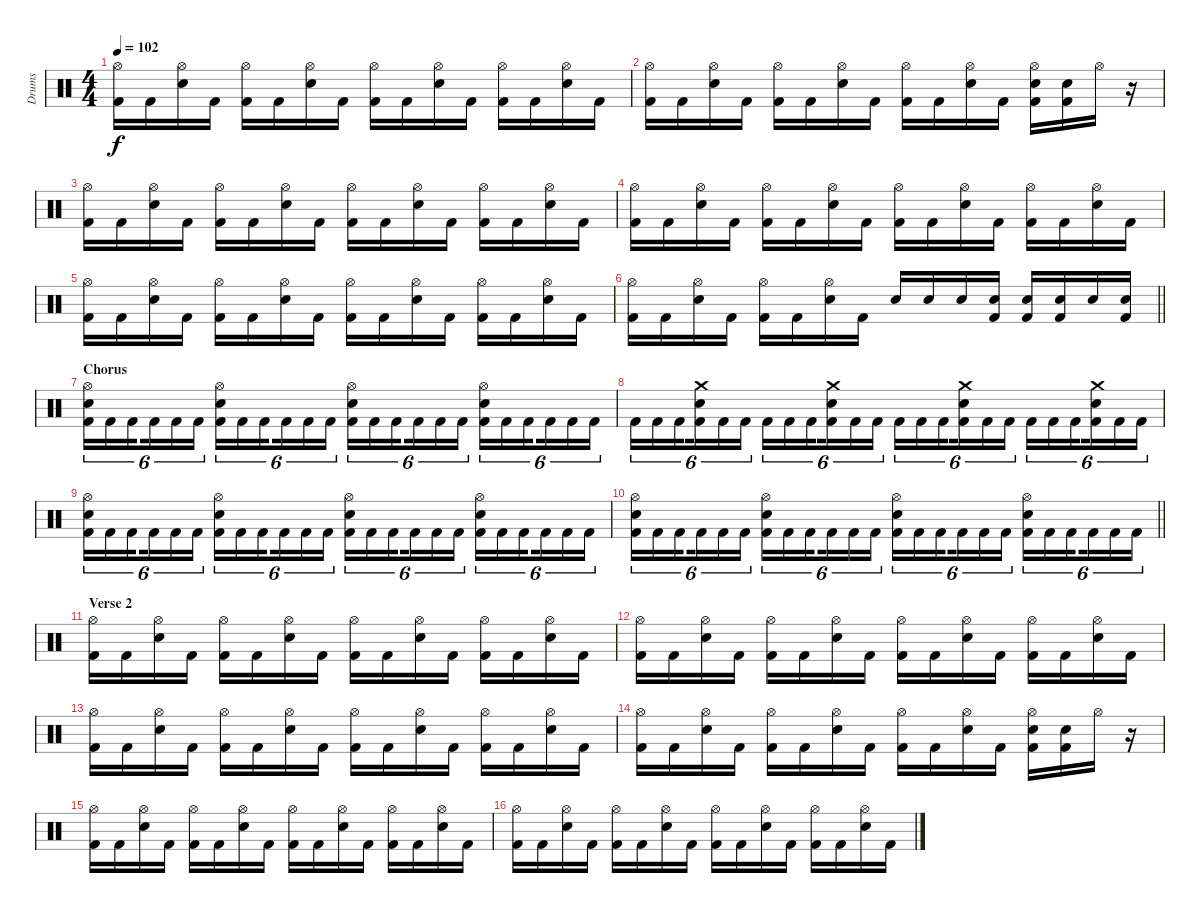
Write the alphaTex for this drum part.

\track ("Drums" "Drums") {instrument percussion}
\staff {score}
\articulation defaults
\ts (4 4)
\tempo 102
\clef neutral
\ks c
("Hi-Hat (open)" "Kick (hit) 2").16{dy f} "Kick (hit) 2".16 ("Hi-Hat (open)" "Snare (hit) 2").16 "Kick (hit) 2".16 ("Hi-Hat (open)" "Kick (hit) 2").16 "Kick (hit) 2".16 ("Hi-Hat (open)" "Snare (hit) 2").16 "Kick (hit) 2".16 ("Hi-Hat (open)" "Kick (hit) 2").16 "Kick (hit) 2".16 ("Hi-Hat (open)" "Snare (hit) 2").16 "Kick (hit) 2".16 ("Hi-Hat (open)" "Kick (hit) 2").16 "Kick (hit) 2".16 ("Hi-Hat (open)" "Snare (hit) 2").16 "Kick (hit) 2".16 |
("Hi-Hat (open)" "Kick (hit) 2").16 "Kick (hit) 2".16 ("Hi-Hat (open)" "Snare (hit) 2").16 "Kick (hit) 2".16 ("Hi-Hat (open)" "Kick (hit) 2").16 "Kick (hit) 2".16 ("Hi-Hat (open)" "Snare (hit) 2").16 "Kick (hit) 2".16 ("Hi-Hat (open)" "Kick (hit) 2").16 "Kick (hit) 2".16 ("Hi-Hat (open)" "Snare (hit) 2").16 "Kick (hit) 2".16 ("Hi-Hat (open)" "Snare (hit) 2" "Kick (hit) 2").16 ("Snare (hit) 2" "Kick (hit) 2").16 "Hi-Hat (open)".16 r.16 |
("Hi-Hat (open)" "Kick (hit) 2").16 "Kick (hit) 2".16 ("Hi-Hat (open)" "Snare (hit) 2").16 "Kick (hit) 2".16 ("Hi-Hat (open)" "Kick (hit) 2").16 "Kick (hit) 2".16 ("Hi-Hat (open)" "Snare (hit) 2").16 "Kick (hit) 2".16 ("Hi-Hat (open)" "Kick (hit) 2").16 "Kick (hit) 2".16 ("Hi-Hat (open)" "Snare (hit) 2").16 "Kick (hit) 2".16 ("Hi-Hat (open)" "Kick (hit) 2").16 "Kick (hit) 2".16 ("Hi-Hat (open)" "Snare (hit) 2").16 "Kick (hit) 2".16 |
("Hi-Hat (open)" "Kick (hit) 2").16 "Kick (hit) 2".16 ("Hi-Hat (open)" "Snare (hit) 2").16 "Kick (hit) 2".16 ("Hi-Hat (open)" "Kick (hit) 2").16 "Kick (hit) 2".16 ("Hi-Hat (open)" "Snare (hit) 2").16 "Kick (hit) 2".16 ("Hi-Hat (open)" "Kick (hit) 2").16 "Kick (hit) 2".16 ("Hi-Hat (open)" "Snare (hit) 2").16 "Kick (hit) 2".16 ("Hi-Hat (open)" "Kick (hit) 2").16 "Kick (hit) 2".16 ("Hi-Hat (open)" "Snare (hit) 2").16 "Kick (hit) 2".16 |
("Hi-Hat (open)" "Kick (hit) 2").16 "Kick (hit) 2".16 ("Hi-Hat (open)" "Snare (hit) 2").16 "Kick (hit) 2".16 ("Hi-Hat (open)" "Kick (hit) 2").16 "Kick (hit) 2".16 ("Hi-Hat (open)" "Snare (hit) 2").16 "Kick (hit) 2".16 ("Hi-Hat (open)" "Kick (hit) 2").16 "Kick (hit) 2".16 ("Hi-Hat (open)" "Snare (hit) 2").16 "Kick (hit) 2".16 ("Hi-Hat (open)" "Kick (hit) 2").16 "Kick (hit) 2".16 ("Hi-Hat (open)" "Snare (hit) 2").16 "Kick (hit) 2".16 |
\barLineRight lightlight
("Hi-Hat (open)" "Kick (hit) 2").16 "Kick (hit) 2".16 ("Hi-Hat (open)" "Snare (hit) 2").16 "Kick (hit) 2".16 ("Hi-Hat (open)" "Kick (hit) 2").16 "Kick (hit) 2".16 ("Hi-Hat (open)" "Snare (hit) 2").16 "Kick (hit) 2".16 "Snare (hit) 2".16 "Snare (hit) 2".16 "Snare (hit) 2".16 ("Snare (hit) 2" "Kick (hit) 2").16 ("Snare (hit) 2" "Kick (hit) 2").16 ("Snare (hit) 2" "Kick (hit) 2").16 "Snare (hit) 2".16 ("Snare (hit) 2" "Kick (hit) 2").16 |
\section ("" "Chorus")
("Hi-Hat (open)" "Snare (hit) 2" "Kick (hit) 2").16{tu (6 4)} "Kick (hit) 2".16{tu (6 4)} "Kick (hit) 2".16{tu (6 4) beam splitsecondary} "Kick (hit) 2".16{tu (6 4)} "Kick (hit) 2".16{tu (6 4)} "Kick (hit) 2".16{tu (6 4)} ("Hi-Hat (open)" "Snare (hit) 2" "Kick (hit) 2").16{tu (6 4)} "Kick (hit) 2".16{tu (6 4)} "Kick (hit) 2".16{tu (6 4) beam splitsecondary} "Kick (hit) 2".16{tu (6 4)} "Kick (hit) 2".16{tu (6 4)} "Kick (hit) 2".16{tu (6 4)} ("Hi-Hat (open)" "Snare (hit) 2" "Kick (hit) 2").16{tu (6 4)} "Kick (hit) 2".16{tu (6 4)} "Kick (hit) 2".16{tu (6 4) beam splitsecondary} "Kick (hit) 2".16{tu (6 4)} "Kick (hit) 2".16{tu (6 4)} "Kick (hit) 2".16{tu (6 4)} ("Hi-Hat (open)" "Snare (hit) 2" "Kick (hit) 2").16{tu (6 4)} "Kick (hit) 2".16{tu (6 4)} "Kick (hit) 2".16{tu (6 4) beam splitsecondary} "Kick (hit) 2".16{tu (6 4)} "Kick (hit) 2".16{tu (6 4)} "Kick (hit) 2".16{tu (6 4)} |
"Kick (hit) 2".16{tu (6 4)} "Kick (hit) 2".16{tu (6 4)} "Kick (hit) 2".16{tu (6 4) beam splitsecondary} ("Crash medium (hit)" "Snare (hit) 2" "Kick (hit) 2").16{tu (6 4)} "Kick (hit) 2".16{tu (6 4)} "Kick (hit) 2".16{tu (6 4)} "Kick (hit) 2".16{tu (6 4)} "Kick (hit) 2".16{tu (6 4)} "Kick (hit) 2".16{tu (6 4) beam splitsecondary} ("Crash medium (hit)" "Snare (hit) 2" "Kick (hit) 2").16{tu (6 4)} "Kick (hit) 2".16{tu (6 4)} "Kick (hit) 2".16{tu (6 4)} "Kick (hit) 2".16{tu (6 4)} "Kick (hit) 2".16{tu (6 4)} "Kick (hit) 2".16{tu (6 4) beam splitsecondary} ("Crash medium (hit)" "Snare (hit) 2" "Kick (hit) 2").16{tu (6 4)} "Kick (hit) 2".16{tu (6 4)} "Kick (hit) 2".16{tu (6 4)} "Kick (hit) 2".16{tu (6 4)} "Kick (hit) 2".16{tu (6 4)} "Kick (hit) 2".16{tu (6 4) beam splitsecondary} ("Snare (hit) 2" "Crash medium (hit)" "Kick (hit) 2").16{tu (6 4)} "Kick (hit) 2".16{tu (6 4)} "Kick (hit) 2".16{tu (6 4)} |
("Hi-Hat (open)" "Snare (hit) 2" "Kick (hit) 2").16{tu (6 4)} "Kick (hit) 2".16{tu (6 4)} "Kick (hit) 2".16{tu (6 4) beam splitsecondary} "Kick (hit) 2".16{tu (6 4)} "Kick (hit) 2".16{tu (6 4)} "Kick (hit) 2".16{tu (6 4)} ("Hi-Hat (open)" "Snare (hit) 2" "Kick (hit) 2").16{tu (6 4)} "Kick (hit) 2".16{tu (6 4)} "Kick (hit) 2".16{tu (6 4) beam splitsecondary} "Kick (hit) 2".16{tu (6 4)} "Kick (hit) 2".16{tu (6 4)} "Kick (hit) 2".16{tu (6 4)} ("Hi-Hat (open)" "Snare (hit) 2" "Kick (hit) 2").16{tu (6 4)} "Kick (hit) 2".16{tu (6 4)} "Kick (hit) 2".16{tu (6 4) beam splitsecondary} "Kick (hit) 2".16{tu (6 4)} "Kick (hit) 2".16{tu (6 4)} "Kick (hit) 2".16{tu (6 4)} ("Hi-Hat (open)" "Snare (hit) 2" "Kick (hit) 2").16{tu (6 4)} "Kick (hit) 2".16{tu (6 4)} "Kick (hit) 2".16{tu (6 4) beam splitsecondary} "Kick (hit) 2".16{tu (6 4)} "Kick (hit) 2".16{tu (6 4)} "Kick (hit) 2".16{tu (6 4)} |
\barLineRight lightlight
("Hi-Hat (open)" "Snare (hit) 2" "Kick (hit) 2").16{tu (6 4)} "Kick (hit) 2".16{tu (6 4)} "Kick (hit) 2".16{tu (6 4) beam splitsecondary} "Kick (hit) 2".16{tu (6 4)} "Kick (hit) 2".16{tu (6 4)} "Kick (hit) 2".16{tu (6 4)} ("Hi-Hat (open)" "Snare (hit) 2" "Kick (hit) 2").16{tu (6 4)} "Kick (hit) 2".16{tu (6 4)} "Kick (hit) 2".16{tu (6 4) beam splitsecondary} "Kick (hit) 2".16{tu (6 4)} "Kick (hit) 2".16{tu (6 4)} "Kick (hit) 2".16{tu (6 4)} ("Hi-Hat (open)" "Snare (hit) 2" "Kick (hit) 2").16{tu (6 4)} "Kick (hit) 2".16{tu (6 4)} "Kick (hit) 2".16{tu (6 4) beam splitsecondary} "Kick (hit) 2".16{tu (6 4)} "Kick (hit) 2".16{tu (6 4)} "Kick (hit) 2".16{tu (6 4)} ("Hi-Hat (open)" "Snare (hit) 2" "Kick (hit) 2").16{tu (6 4)} "Kick (hit) 2".16{tu (6 4)} "Kick (hit) 2".16{tu (6 4) beam splitsecondary} "Kick (hit) 2".16{tu (6 4)} "Kick (hit) 2".16{tu (6 4)} "Kick (hit) 2".16{tu (6 4)} |
\section ("" "Verse 2")
("Hi-Hat (open)" "Kick (hit) 2").16 "Kick (hit) 2".16 ("Hi-Hat (open)" "Snare (hit) 2").16 "Kick (hit) 2".16 ("Hi-Hat (open)" "Kick (hit) 2").16 "Kick (hit) 2".16 ("Hi-Hat (open)" "Snare (hit) 2").16 "Kick (hit) 2".16 ("Hi-Hat (open)" "Kick (hit) 2").16 "Kick (hit) 2".16 ("Hi-Hat (open)" "Snare (hit) 2").16 "Kick (hit) 2".16 ("Hi-Hat (open)" "Kick (hit) 2").16 "Kick (hit) 2".16 ("Hi-Hat (open)" "Snare (hit) 2").16 "Kick (hit) 2".16 |
("Hi-Hat (open)" "Kick (hit) 2").16 "Kick (hit) 2".16 ("Hi-Hat (open)" "Snare (hit) 2").16 "Kick (hit) 2".16 ("Hi-Hat (open)" "Kick (hit) 2").16 "Kick (hit) 2".16 ("Hi-Hat (open)" "Snare (hit) 2").16 "Kick (hit) 2".16 ("Hi-Hat (open)" "Kick (hit) 2").16 "Kick (hit) 2".16 ("Hi-Hat (open)" "Snare (hit) 2").16 "Kick (hit) 2".16 ("Hi-Hat (open)" "Kick (hit) 2").16 "Kick (hit) 2".16 ("Hi-Hat (open)" "Snare (hit) 2").16 "Kick (hit) 2".16 |
("Hi-Hat (open)" "Kick (hit) 2").16 "Kick (hit) 2".16 ("Hi-Hat (open)" "Snare (hit) 2").16 "Kick (hit) 2".16 ("Hi-Hat (open)" "Kick (hit) 2").16 "Kick (hit) 2".16 ("Hi-Hat (open)" "Snare (hit) 2").16 "Kick (hit) 2".16 ("Hi-Hat (open)" "Kick (hit) 2").16 "Kick (hit) 2".16 ("Hi-Hat (open)" "Snare (hit) 2").16 "Kick (hit) 2".16 ("Hi-Hat (open)" "Kick (hit) 2").16 "Kick (hit) 2".16 ("Hi-Hat (open)" "Snare (hit) 2").16 "Kick (hit) 2".16 |
("Hi-Hat (open)" "Kick (hit) 2").16 "Kick (hit) 2".16 ("Hi-Hat (open)" "Snare (hit) 2").16 "Kick (hit) 2".16 ("Hi-Hat (open)" "Kick (hit) 2").16 "Kick (hit) 2".16 ("Hi-Hat (open)" "Snare (hit) 2").16 "Kick (hit) 2".16 ("Hi-Hat (open)" "Kick (hit) 2").16 "Kick (hit) 2".16 ("Hi-Hat (open)" "Snare (hit) 2").16 "Kick (hit) 2".16 ("Hi-Hat (open)" "Snare (hit) 2" "Kick (hit) 2").16 ("Snare (hit) 2" "Kick (hit) 2").16 "Hi-Hat (open)".16 r.16 |
("Hi-Hat (open)" "Kick (hit) 2").16 "Kick (hit) 2".16 ("Hi-Hat (open)" "Snare (hit) 2").16 "Kick (hit) 2".16 ("Hi-Hat (open)" "Kick (hit) 2").16 "Kick (hit) 2".16 ("Hi-Hat (open)" "Snare (hit) 2").16 "Kick (hit) 2".16 ("Hi-Hat (open)" "Kick (hit) 2").16 "Kick (hit) 2".16 ("Hi-Hat (open)" "Snare (hit) 2").16 "Kick (hit) 2".16 ("Hi-Hat (open)" "Kick (hit) 2").16 "Kick (hit) 2".16 ("Hi-Hat (open)" "Snare (hit) 2").16 "Kick (hit) 2".16 |
("Hi-Hat (open)" "Kick (hit) 2").16 "Kick (hit) 2".16 ("Hi-Hat (open)" "Snare (hit) 2").16 "Kick (hit) 2".16 ("Hi-Hat (open)" "Kick (hit) 2").16 "Kick (hit) 2".16 ("Hi-Hat (open)" "Snare (hit) 2").16 "Kick (hit) 2".16 ("Hi-Hat (open)" "Kick (hit) 2").16 "Kick (hit) 2".16 ("Hi-Hat (open)" "Snare (hit) 2").16 "Kick (hit) 2".16 ("Hi-Hat (open)" "Kick (hit) 2").16 "Kick (hit) 2".16 ("Hi-Hat (open)" "Snare (hit) 2").16 "Kick (hit) 2".16
